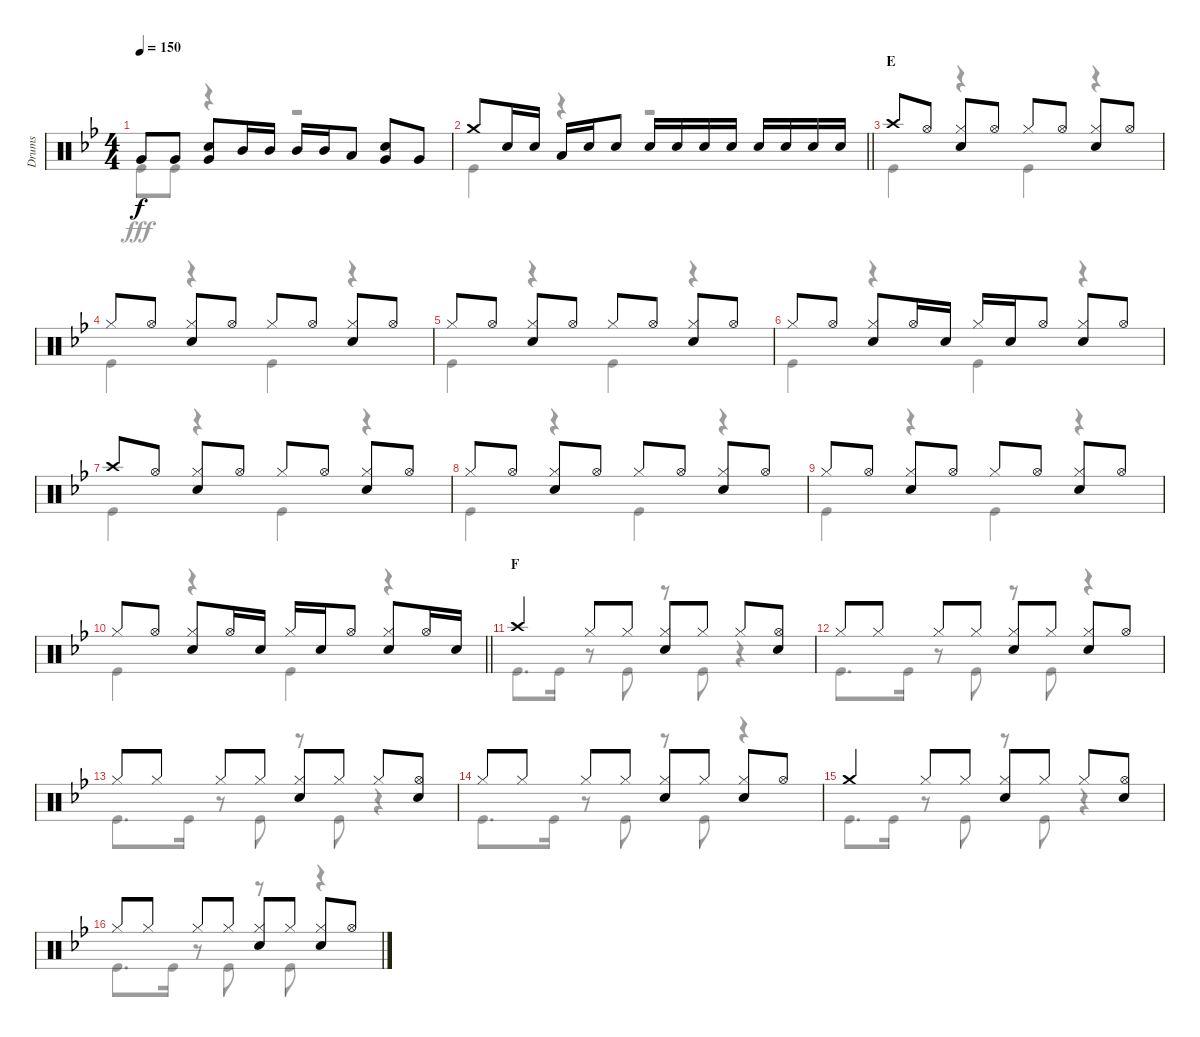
\track ("Drums" "Drums") {instrument percussion}
\staff {score}
\articulation defaults
\voice
\ts (4 4)
\tempo 150
\clef neutral
\ks bb "Very Low Tom (hit)".8{dy f} "Very Low Tom (hit)".8
("Snare (hit) 2" "Very Low Tom (hit)").8 "Mid Tom (hit)".16 "Mid Tom (hit)".16 "Mid Tom (hit)".16 "Mid Tom (hit)".16 "Low Tom (hit)".8 ("Snare (hit) 2" "Very Low Tom (hit)").8 "Very Low Tom (hit)".8 |
\barLineRight lightlight "Crash medium (hit)".8 "Snare (hit) 2".16 "Snare (hit) 2".16 "Low Tom (hit)".16 "Snare (hit) 2".16 "Snare (hit) 2".8 "Snare (hit) 2".16 "Snare (hit) 2".16 "Snare (hit) 2".16 "Snare (hit) 2".16 "Snare (hit) 2".16 "Snare (hit) 2".16 "Snare (hit) 2".16 "Snare (hit) 2".16
|
\section ("" "E")
"Crash high (hit)".8 "Hi-Hat (open)".8 ("Hi-Hat (closed)" "Snare (hit) 2").8 "Hi-Hat (open)".8 "Hi-Hat (closed)".8 "Hi-Hat (open)".8 ("Hi-Hat (closed)" "Snare (hit) 2").8 "Hi-Hat (open)".8 |
"Hi-Hat (closed)".8 "Hi-Hat (open)".8 ("Hi-Hat (closed)" "Snare (hit) 2").8 "Hi-Hat (open)".8 "Hi-Hat (closed)".8 "Hi-Hat (open)".8 ("Hi-Hat (closed)" "Snare (hit) 2").8 "Hi-Hat (open)".8 |
"Hi-Hat (closed)".8 "Hi-Hat (open)".8 ("Hi-Hat (closed)" "Snare (hit) 2").8 "Hi-Hat (open)".8 "Hi-Hat (closed)".8 "Hi-Hat (open)".8 ("Hi-Hat (closed)" "Snare (hit) 2").8 "Hi-Hat (open)".8 |
"Hi-Hat (closed)".8 "Hi-Hat (open)".8 ("Hi-Hat (closed)" "Snare (hit) 2").8 "Hi-Hat (open)".16 "Snare (hit) 2".16 "Hi-Hat (closed)".16 "Snare (hit) 2".16 "Hi-Hat (open)".8 ("Hi-Hat (closed)" "Snare (hit) 2").8 "Hi-Hat (open)".8 |
"Crash high (hit)".8 "Hi-Hat (open)".8 ("Hi-Hat (closed)" "Snare (hit) 2").8 "Hi-Hat (open)".8 "Hi-Hat (closed)".8 "Hi-Hat (open)".8 ("Hi-Hat (closed)" "Snare (hit) 2").8 "Hi-Hat (open)".8 |
"Hi-Hat (closed)".8 "Hi-Hat (open)".8 ("Hi-Hat (closed)" "Snare (hit) 2").8 "Hi-Hat (open)".8 "Hi-Hat (closed)".8 "Hi-Hat (open)".8 ("Hi-Hat (closed)" "Snare (hit) 2").8 "Hi-Hat (open)".8 |
"Hi-Hat (closed)".8 "Hi-Hat (open)".8 ("Hi-Hat (closed)" "Snare (hit) 2").8 "Hi-Hat (open)".8 "Hi-Hat (closed)".8 "Hi-Hat (open)".8 ("Hi-Hat (closed)" "Snare (hit) 2").8 "Hi-Hat (open)".8 |
\barLineRight lightlight "Hi-Hat (closed)".8 "Hi-Hat (open)".8
("Hi-Hat (closed)" "Snare (hit) 2").8 "Hi-Hat (open)".16 "Snare (hit) 2".16 "Hi-Hat (closed)".16 "Snare (hit) 2".16 "Hi-Hat (open)".8 ("Hi-Hat (closed)" "Snare (hit) 2").8 "Hi-Hat (open)".16 "Snare (hit) 2".16 |
\section ("" "F")
"Crash high (hit)".4 "Hi-Hat (closed)".8 "Hi-Hat (closed)".8 ("Hi-Hat (closed)" "Snare (hit) 2").8 "Hi-Hat (closed)".8 "Hi-Hat (closed)".8 ("Hi-Hat (open)" "Snare (hit) 2").8 |
"Hi-Hat (closed)".8 "Hi-Hat (closed)".8 "Hi-Hat (closed)".8 "Hi-Hat (closed)".8 ("Hi-Hat (closed)" "Snare (hit) 2").8 "Hi-Hat (closed)".8 ("Hi-Hat (closed)" "Snare (hit) 2").8 "Hi-Hat (open)".8 |
"Hi-Hat (closed)".8 "Hi-Hat (closed)".8 "Hi-Hat (closed)".8 "Hi-Hat (closed)".8 ("Hi-Hat (closed)" "Snare (hit) 2").8 "Hi-Hat (closed)".8 "Hi-Hat (closed)".8 ("Hi-Hat (open)" "Snare (hit) 2").8 |
"Hi-Hat (closed)".8 "Hi-Hat (closed)".8 "Hi-Hat (closed)".8 "Hi-Hat (closed)".8 ("Hi-Hat (closed)" "Snare (hit) 2").8 "Hi-Hat (closed)".8 ("Hi-Hat (closed)" "Snare (hit) 2").8 "Hi-Hat (open)".8 |
"Crash medium (hit)".4 "Hi-Hat (closed)".8 "Hi-Hat (closed)".8 ("Hi-Hat (closed)" "Snare (hit) 2").8 "Hi-Hat (closed)".8 "Hi-Hat (closed)".8 ("Hi-Hat (open)" "Snare (hit) 2").8 |
"Hi-Hat (closed)".8 "Hi-Hat (closed)".8 "Hi-Hat (closed)".8 "Hi-Hat (closed)".8 ("Hi-Hat (closed)" "Snare (hit) 2").8 "Hi-Hat (closed)".8 ("Hi-Hat (closed)" "Snare (hit) 2").8 "Hi-Hat (open)".8
\voice
\clef neutral
\ottava regular
\simile none
\ks bb "Kick (hit)".8{dy fff} "Kick (hit)".8
r.4 r.2 |
\barLineRight lightlight "Kick (hit)".4
r.4 r.2 |
"Kick (hit)".4 r.4 "Kick (hit)".4 r.4 |
"Kick (hit)".4 r.4 "Kick (hit)".4 r.4 |
"Kick (hit)".4 r.4 "Kick (hit)".4 r.4 |
"Kick (hit)".4 r.4 "Kick (hit)".4 r.4 |
"Kick (hit)".4 r.4 "Kick (hit)".4 r.4 |
"Kick (hit)".4 r.4 "Kick (hit)".4 r.4 |
"Kick (hit)".4 r.4 "Kick (hit)".4 r.4 |
\barLineRight lightlight "Kick (hit)".4
r.4 "Kick (hit)".4 r.4 |
"Kick (hit)".8{d} "Kick (hit)".16 r.8 "Kick (hit)".8 r.8 "Kick (hit)".8 r.4 |
"Kick (hit)".8{d} "Kick (hit)".16 r.8 "Kick (hit)".8 r.8 "Kick (hit)".8 r.4 |
"Kick (hit)".8{d} "Kick (hit)".16 r.8 "Kick (hit)".8 r.8 "Kick (hit)".8 r.4 |
"Kick (hit)".8{d} "Kick (hit)".16 r.8 "Kick (hit)".8 r.8 "Kick (hit)".8 r.4 |
"Kick (hit)".8{d} "Kick (hit)".16 r.8 "Kick (hit)".8 r.8 "Kick (hit)".8 r.4 |
"Kick (hit)".8{d} "Kick (hit)".16 r.8 "Kick (hit)".8 r.8 "Kick (hit)".8 r.4
